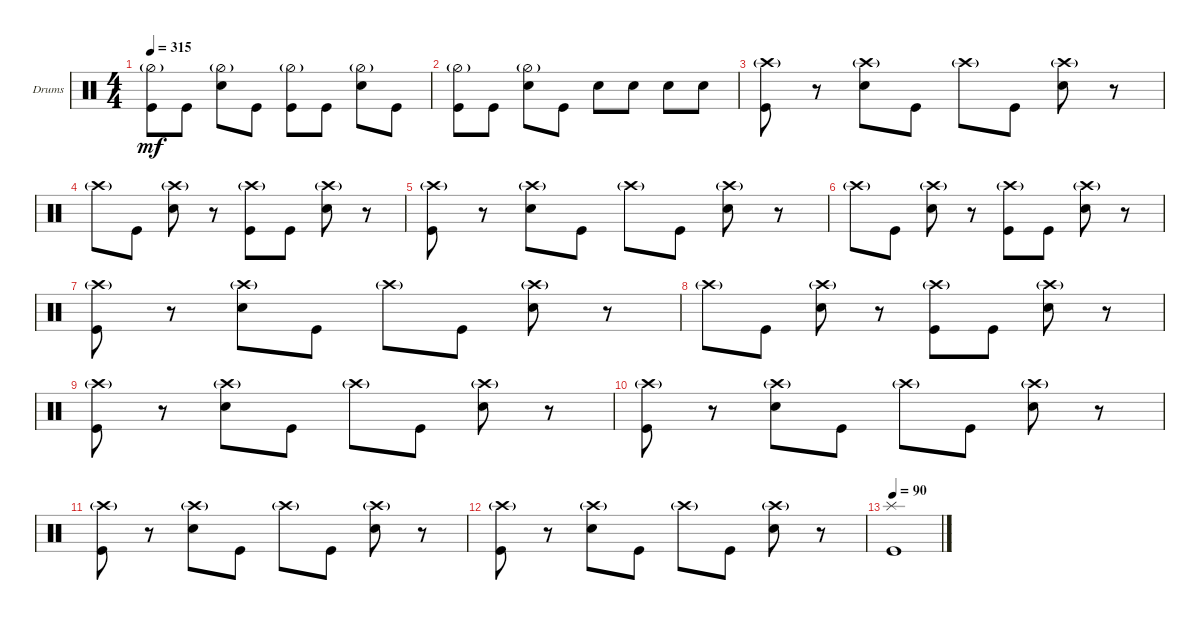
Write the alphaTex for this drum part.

\bracketExtendMode groupsimilarinstruments
\firstSystemTrackNameOrientation horizontal
\otherSystemsTrackNameOrientation horizontal
\track ("Drumkit" "Drums") {instrument percussion}
\staff {score}
\articulation defaults
\ts (4 4)
\tempo 315
\clef neutral
\ks c
("Kick (hit)" "Hi-Hat (half)"{g}).8{dy mf} "Kick (hit)".8 ("Snare (hit) 2" "Hi-Hat (half)"{g}).8 "Kick (hit)".8 ("Kick (hit)" "Hi-Hat (half)"{g}).8 "Kick (hit)".8 ("Snare (hit) 2" "Hi-Hat (half)"{g}).8 "Kick (hit)".8 |
("Kick (hit)" "Hi-Hat (half)"{g}).8 "Kick (hit)".8 ("Snare (hit) 2" "Hi-Hat (half)"{g}).8 "Kick (hit)".8 "Snare (hit) 2".8 "Snare (hit) 2".8 "Snare (hit) 2".8 "Snare (hit) 2".8 |
("Kick (hit)" "Crash high (hit)"{g}).8 r.8 ("Snare (hit) 2" "Crash high (hit)"{g}).8 "Kick (hit)".8 "Crash high (hit)"{g}.8 "Kick (hit)".8 ("Snare (hit) 2" "Crash high (hit)"{g}).8 r.8 |
"Crash high (hit)"{g}.8 "Kick (hit)".8 ("Snare (hit) 2" "Crash high (hit)"{g}).8 r.8 ("Kick (hit)" "Crash high (hit)"{g}).8 "Kick (hit)".8 ("Snare (hit) 2" "Crash high (hit)"{g}).8 r.8 |
("Kick (hit)" "Crash high (hit)"{g}).8 r.8 ("Snare (hit) 2" "Crash high (hit)"{g}).8 "Kick (hit)".8 "Crash high (hit)"{g}.8 "Kick (hit)".8 ("Snare (hit) 2" "Crash high (hit)"{g}).8 r.8 |
"Crash high (hit)"{g}.8 "Kick (hit)".8 ("Snare (hit) 2" "Crash high (hit)"{g}).8 r.8 ("Kick (hit)" "Crash high (hit)"{g}).8 "Kick (hit)".8 ("Snare (hit) 2" "Crash high (hit)"{g}).8 r.8 |
("Kick (hit)" "Crash high (hit)"{g}).8 r.8 ("Snare (hit) 2" "Crash high (hit)"{g}).8 "Kick (hit)".8 "Crash high (hit)"{g}.8 "Kick (hit)".8 ("Snare (hit) 2" "Crash high (hit)"{g}).8 r.8 |
"Crash high (hit)"{g}.8 "Kick (hit)".8 ("Snare (hit) 2" "Crash high (hit)"{g}).8 r.8 ("Kick (hit)" "Crash high (hit)"{g}).8 "Kick (hit)".8 ("Snare (hit) 2" "Crash high (hit)"{g}).8 r.8 |
("Kick (hit)" "Crash high (hit)"{g}).8 r.8 ("Snare (hit) 2" "Crash high (hit)"{g}).8 "Kick (hit)".8 "Crash high (hit)"{g}.8 "Kick (hit)".8 ("Snare (hit) 2" "Crash high (hit)"{g}).8 r.8 |
("Kick (hit)" "Crash high (hit)"{g}).8 r.8 ("Snare (hit) 2" "Crash high (hit)"{g}).8 "Kick (hit)".8 "Crash high (hit)"{g}.8 "Kick (hit)".8 ("Snare (hit) 2" "Crash high (hit)"{g}).8 r.8 |
("Kick (hit)" "Crash high (hit)"{g}).8 r.8 ("Snare (hit) 2" "Crash high (hit)"{g}).8 "Kick (hit)".8 "Crash high (hit)"{g}.8 "Kick (hit)".8 ("Snare (hit) 2" "Crash high (hit)"{g}).8 r.8 |
("Kick (hit)" "Crash high (hit)"{g}).8 r.8 ("Snare (hit) 2" "Crash high (hit)"{g}).8 "Kick (hit)".8 "Crash high (hit)"{g}.8 "Kick (hit)".8 ("Snare (hit) 2" "Crash high (hit)"{g}).8 r.8 |
\tempo 90
("Kick (hit)" "Splash (hit)").1
